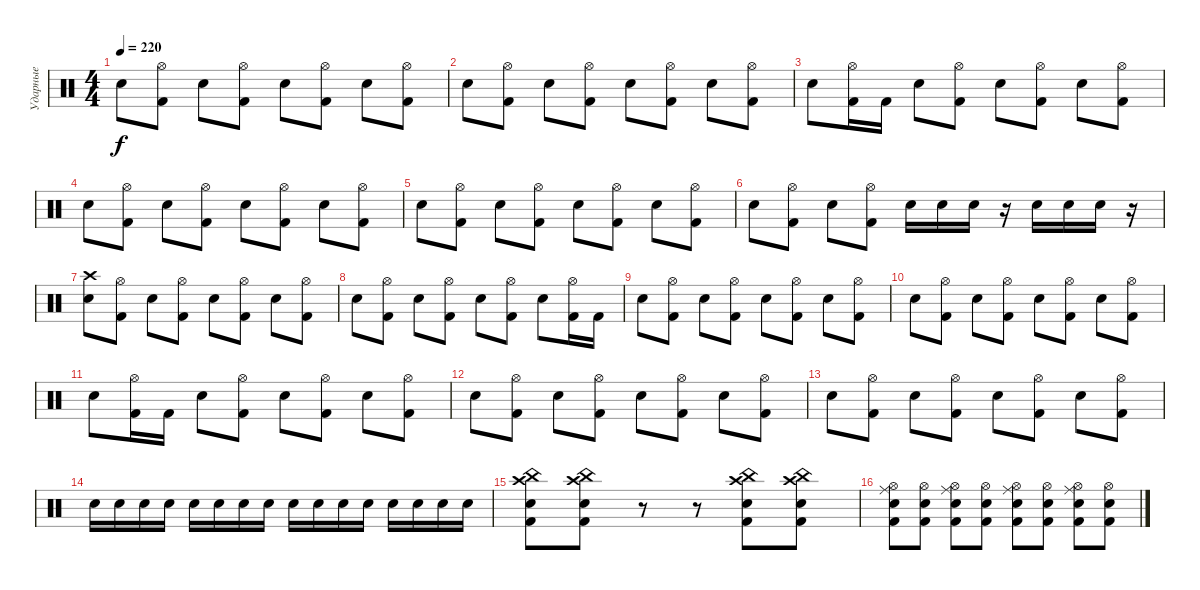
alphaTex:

\track ("Ударные" "Ударные") {instrument percussion}
\staff {score}
\articulation defaults
\ts (4 4)
\tempo 220
\clef neutral
\ks c "Electric Snare (hit)".8{dy f}
("Kick (hit) 2" "Hi-Hat (open)").8 "Electric Snare (hit)".8 ("Kick (hit) 2" "Hi-Hat (open)").8 "Electric Snare (hit)".8 ("Kick (hit) 2" "Hi-Hat (open)").8 "Electric Snare (hit)".8 ("Kick (hit) 2" "Hi-Hat (open)").8 |
"Electric Snare (hit)".8 ("Kick (hit) 2" "Hi-Hat (open)").8 "Electric Snare (hit)".8 ("Kick (hit) 2" "Hi-Hat (open)").8 "Electric Snare (hit)".8 ("Kick (hit) 2" "Hi-Hat (open)").8 "Electric Snare (hit)".8 ("Kick (hit) 2" "Hi-Hat (open)").8 |
"Electric Snare (hit)".8 ("Kick (hit) 2" "Hi-Hat (open)").16 "Kick (hit) 2".16 "Electric Snare (hit)".8 ("Kick (hit) 2" "Hi-Hat (open)").8 "Electric Snare (hit)".8 ("Kick (hit) 2" "Hi-Hat (open)").8 "Electric Snare (hit)".8 ("Kick (hit) 2" "Hi-Hat (open)").8 |
"Electric Snare (hit)".8 ("Kick (hit) 2" "Hi-Hat (open)").8 "Electric Snare (hit)".8 ("Kick (hit) 2" "Hi-Hat (open)").8 "Electric Snare (hit)".8 ("Kick (hit) 2" "Hi-Hat (open)").8 "Electric Snare (hit)".8 ("Kick (hit) 2" "Hi-Hat (open)").8 |
"Electric Snare (hit)".8 ("Kick (hit) 2" "Hi-Hat (open)").8 "Electric Snare (hit)".8 ("Kick (hit) 2" "Hi-Hat (open)").8 "Electric Snare (hit)".8 ("Kick (hit) 2" "Hi-Hat (open)").8 "Electric Snare (hit)".8 ("Kick (hit) 2" "Hi-Hat (open)").8 |
"Electric Snare (hit)".8 ("Kick (hit) 2" "Hi-Hat (open)").8 "Electric Snare (hit)".8 ("Kick (hit) 2" "Hi-Hat (open)").8 "Electric Snare (hit)".16 "Electric Snare (hit)".16 "Electric Snare (hit)".16 r.16 "Electric Snare (hit)".16 "Electric Snare (hit)".16 "Electric Snare (hit)".16 r.16 |
("Electric Snare (hit)" "Crash high (hit)").8 ("Kick (hit) 2" "Hi-Hat (open)").8 "Electric Snare (hit)".8 ("Kick (hit) 2" "Hi-Hat (open)").8 "Electric Snare (hit)".8 ("Kick (hit) 2" "Hi-Hat (open)").8 "Electric Snare (hit)".8 ("Kick (hit) 2" "Hi-Hat (open)").8 |
"Electric Snare (hit)".8 ("Kick (hit) 2" "Hi-Hat (open)").8 "Electric Snare (hit)".8 ("Kick (hit) 2" "Hi-Hat (open)").8 "Electric Snare (hit)".8 ("Kick (hit) 2" "Hi-Hat (open)").8 "Electric Snare (hit)".8 ("Kick (hit) 2" "Hi-Hat (open)").16 "Kick (hit) 2".16 |
"Electric Snare (hit)".8 ("Kick (hit) 2" "Hi-Hat (open)").8 "Electric Snare (hit)".8 ("Kick (hit) 2" "Hi-Hat (open)").8 "Electric Snare (hit)".8 ("Kick (hit) 2" "Hi-Hat (open)").8 "Electric Snare (hit)".8 ("Kick (hit) 2" "Hi-Hat (open)").8 |
"Electric Snare (hit)".8 ("Kick (hit) 2" "Hi-Hat (open)").8 "Electric Snare (hit)".8 ("Kick (hit) 2" "Hi-Hat (open)").8 "Electric Snare (hit)".8 ("Kick (hit) 2" "Hi-Hat (open)").8 "Electric Snare (hit)".8 ("Kick (hit) 2" "Hi-Hat (open)").8 |
"Electric Snare (hit)".8 ("Kick (hit) 2" "Hi-Hat (open)").16 "Kick (hit) 2".16 "Electric Snare (hit)".8 ("Kick (hit) 2" "Hi-Hat (open)").8 "Electric Snare (hit)".8 ("Kick (hit) 2" "Hi-Hat (open)").8 "Electric Snare (hit)".8 ("Kick (hit) 2" "Hi-Hat (open)").8 |
"Electric Snare (hit)".8 ("Kick (hit) 2" "Hi-Hat (open)").8 "Electric Snare (hit)".8 ("Kick (hit) 2" "Hi-Hat (open)").8 "Electric Snare (hit)".8 ("Kick (hit) 2" "Hi-Hat (open)").8 "Electric Snare (hit)".8 ("Kick (hit) 2" "Hi-Hat (open)").8 |
"Electric Snare (hit)".8 ("Kick (hit) 2" "Hi-Hat (open)").8 "Electric Snare (hit)".8 ("Kick (hit) 2" "Hi-Hat (open)").8 "Electric Snare (hit)".8 ("Kick (hit) 2" "Hi-Hat (open)").8 "Electric Snare (hit)".8 ("Kick (hit) 2" "Hi-Hat (open)").8 |
"Snare (hit) 2".16 "Snare (hit) 2".16 "Snare (hit) 2".16 "Snare (hit) 2".16 "Snare (hit) 2".16 "Snare (hit) 2".16 "Snare (hit) 2".16 "Snare (hit) 2".16 "Snare (hit) 2".16 "Snare (hit) 2".16 "Snare (hit) 2".16 "Snare (hit) 2".16 "Snare (hit) 2".16 "Snare (hit) 2".16 "Snare (hit) 2".16 "Snare (hit) 2".16 |
("Kick (hit) 2" "Electric Snare (hit)" "Crash high (hit)" "China (hit)").8 ("China (hit)" "Crash high (hit)" "Kick (hit) 2" "Electric Snare (hit)").8 r.8 r.8 ("Kick (hit) 2" "Electric Snare (hit)" "Crash high (hit)" "China (hit)").8 ("China (hit)" "Crash high (hit)" "Kick (hit) 2" "Electric Snare (hit)").8 |
("Kick (hit) 2" "Electric Snare (hit)" "Hi-Hat (open)" "Ride (middle)").8 ("Hi-Hat (open)" "Kick (hit) 2" "Electric Snare (hit)").8 ("Electric Snare (hit)" "Kick (hit) 2" "Hi-Hat (open)" "Ride (middle)").8 ("Hi-Hat (open)" "Kick (hit) 2" "Electric Snare (hit)").8 ("Electric Snare (hit)" "Kick (hit) 2" "Hi-Hat (open)" "Ride (middle)").8 ("Hi-Hat (open)" "Kick (hit) 2" "Electric Snare (hit)").8 ("Electric Snare (hit)" "Kick (hit) 2" "Hi-Hat (open)" "Ride (middle)").8 ("Hi-Hat (open)" "Kick (hit) 2" "Electric Snare (hit)").8
